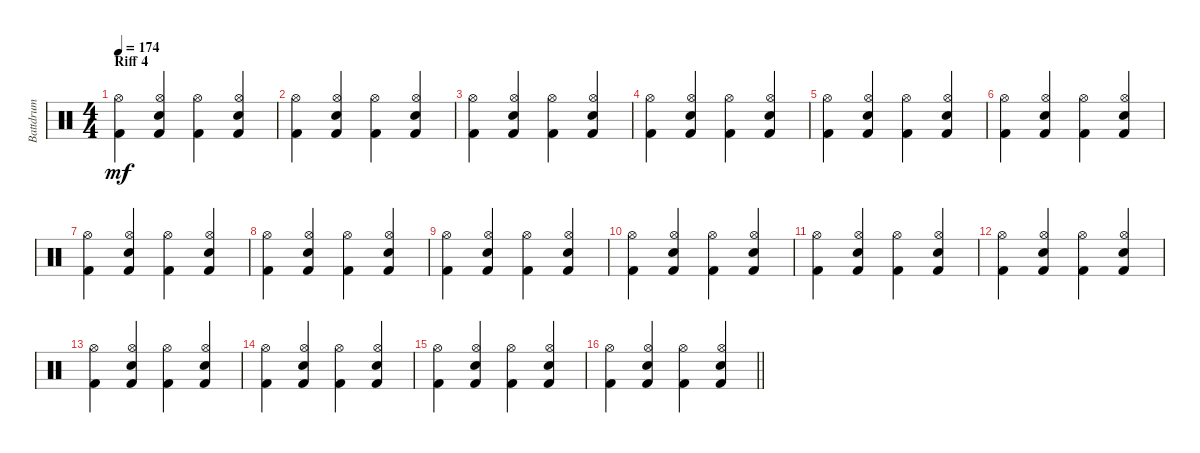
\track ("Battdrum" "Battdrum") {instrument percussion}
\staff {score}
\articulation defaults
\ts (4 4)
\section ("" "Riff 4")
\tempo 174
\clef neutral
\ks c
("Kick (hit) 2" "Hi-Hat (open)").4{dy mf} ("Kick (hit) 2" "Snare (hit) 2" "Hi-Hat (open)").4 ("Kick (hit) 2" "Hi-Hat (open)").4 ("Kick (hit) 2" "Snare (hit) 2" "Hi-Hat (open)").4 |
("Kick (hit) 2" "Hi-Hat (open)").4 ("Kick (hit) 2" "Snare (hit) 2" "Hi-Hat (open)").4 ("Kick (hit) 2" "Hi-Hat (open)").4 ("Kick (hit) 2" "Snare (hit) 2" "Hi-Hat (open)").4 |
("Kick (hit) 2" "Hi-Hat (open)").4 ("Kick (hit) 2" "Snare (hit) 2" "Hi-Hat (open)").4 ("Kick (hit) 2" "Hi-Hat (open)").4 ("Kick (hit) 2" "Snare (hit) 2" "Hi-Hat (open)").4 |
("Kick (hit) 2" "Hi-Hat (open)").4 ("Kick (hit) 2" "Snare (hit) 2" "Hi-Hat (open)").4 ("Kick (hit) 2" "Hi-Hat (open)").4 ("Kick (hit) 2" "Snare (hit) 2" "Hi-Hat (open)").4 |
("Kick (hit) 2" "Hi-Hat (open)").4 ("Kick (hit) 2" "Snare (hit) 2" "Hi-Hat (open)").4 ("Kick (hit) 2" "Hi-Hat (open)").4 ("Kick (hit) 2" "Snare (hit) 2" "Hi-Hat (open)").4 |
("Kick (hit) 2" "Hi-Hat (open)").4 ("Kick (hit) 2" "Snare (hit) 2" "Hi-Hat (open)").4 ("Kick (hit) 2" "Hi-Hat (open)").4 ("Kick (hit) 2" "Snare (hit) 2" "Hi-Hat (open)").4 |
("Kick (hit) 2" "Hi-Hat (open)").4 ("Kick (hit) 2" "Snare (hit) 2" "Hi-Hat (open)").4 ("Kick (hit) 2" "Hi-Hat (open)").4 ("Kick (hit) 2" "Snare (hit) 2" "Hi-Hat (open)").4 |
("Kick (hit) 2" "Hi-Hat (open)").4 ("Kick (hit) 2" "Snare (hit) 2" "Hi-Hat (open)").4 ("Kick (hit) 2" "Hi-Hat (open)").4 ("Kick (hit) 2" "Snare (hit) 2" "Hi-Hat (open)").4 |
("Kick (hit) 2" "Hi-Hat (open)").4 ("Kick (hit) 2" "Snare (hit) 2" "Hi-Hat (open)").4 ("Kick (hit) 2" "Hi-Hat (open)").4 ("Kick (hit) 2" "Snare (hit) 2" "Hi-Hat (open)").4 |
("Kick (hit) 2" "Hi-Hat (open)").4 ("Kick (hit) 2" "Snare (hit) 2" "Hi-Hat (open)").4 ("Kick (hit) 2" "Hi-Hat (open)").4 ("Kick (hit) 2" "Snare (hit) 2" "Hi-Hat (open)").4 |
("Kick (hit) 2" "Hi-Hat (open)").4 ("Kick (hit) 2" "Snare (hit) 2" "Hi-Hat (open)").4 ("Kick (hit) 2" "Hi-Hat (open)").4 ("Kick (hit) 2" "Snare (hit) 2" "Hi-Hat (open)").4 |
("Kick (hit) 2" "Hi-Hat (open)").4 ("Kick (hit) 2" "Snare (hit) 2" "Hi-Hat (open)").4 ("Kick (hit) 2" "Hi-Hat (open)").4 ("Kick (hit) 2" "Snare (hit) 2" "Hi-Hat (open)").4 |
("Kick (hit) 2" "Hi-Hat (open)").4 ("Kick (hit) 2" "Snare (hit) 2" "Hi-Hat (open)").4 ("Kick (hit) 2" "Hi-Hat (open)").4 ("Kick (hit) 2" "Snare (hit) 2" "Hi-Hat (open)").4 |
("Kick (hit) 2" "Hi-Hat (open)").4 ("Kick (hit) 2" "Snare (hit) 2" "Hi-Hat (open)").4 ("Kick (hit) 2" "Hi-Hat (open)").4 ("Kick (hit) 2" "Snare (hit) 2" "Hi-Hat (open)").4 |
("Kick (hit) 2" "Hi-Hat (open)").4 ("Kick (hit) 2" "Snare (hit) 2" "Hi-Hat (open)").4 ("Kick (hit) 2" "Hi-Hat (open)").4 ("Kick (hit) 2" "Snare (hit) 2" "Hi-Hat (open)").4 |
\barLineRight lightlight
("Kick (hit) 2" "Hi-Hat (open)").4 ("Kick (hit) 2" "Snare (hit) 2" "Hi-Hat (open)").4 ("Kick (hit) 2" "Hi-Hat (open)").4 ("Kick (hit) 2" "Snare (hit) 2" "Hi-Hat (open)").4
